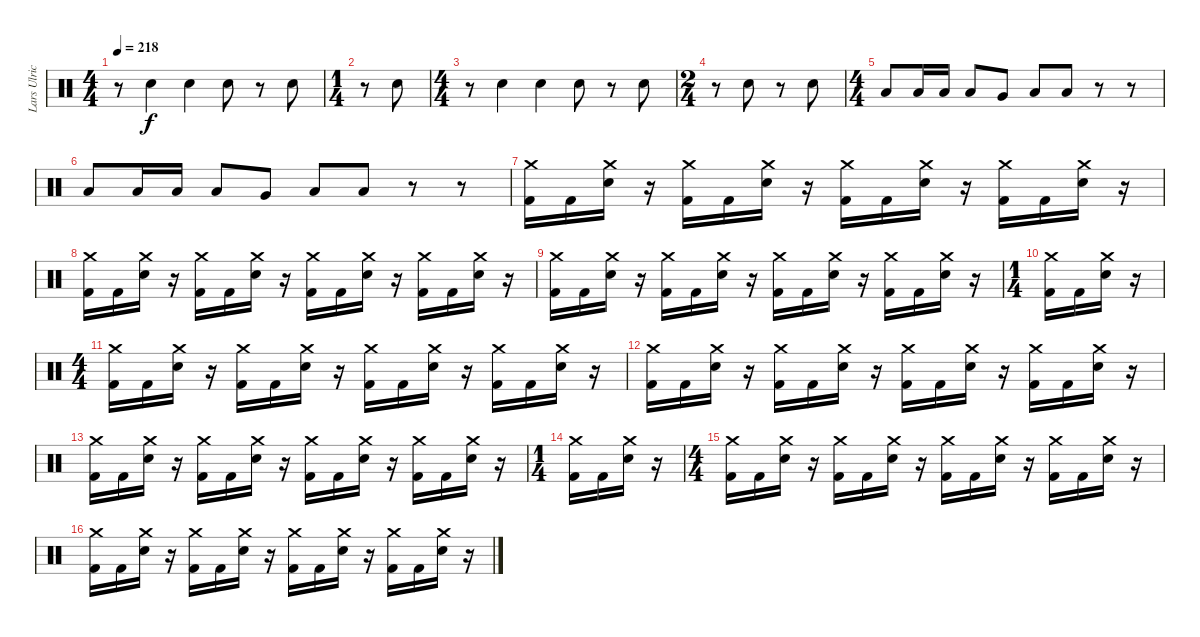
\track ("Lars Ulrich" "Lars Ulric") {instrument percussion}
\staff {score}
\articulation defaults
\ts (4 4)
\tempo 218
\clef neutral
\ks c
r.8{dy f} "Electric Snare (hit)".4 "Electric Snare (hit)".4 "Electric Snare (hit)".8 r.8 "Electric Snare (hit)".8 |
\ts (1 4)
r.8 "Electric Snare (hit)".8 |
\ts (4 4)
r.8 "Electric Snare (hit)".4 "Electric Snare (hit)".4 "Electric Snare (hit)".8 r.8 "Electric Snare (hit)".8 |
\ts (2 4)
r.8 "Electric Snare (hit)".8 r.8 "Electric Snare (hit)".8 |
\ts (4 4)
"Low Tom (hit)".8 "Low Tom (hit)".16 "Low Tom (hit)".16 "Low Tom (hit)".8 "Very Low Tom (hit)".8 "Low Tom (hit)".8 "Low Tom (hit)".8 r.8 r.8 |
"Low Tom (hit)".8 "Low Tom (hit)".16 "Low Tom (hit)".16 "Low Tom (hit)".8 "Very Low Tom (hit)".8 "Low Tom (hit)".8 "Low Tom (hit)".8 r.8 r.8 |
("Crash medium (hit)" "Kick (hit) 2").16 "Kick (hit) 2".16 ("Crash medium (hit)" "Electric Snare (hit)").16 r.16 ("Crash medium (hit)" "Kick (hit) 2").16 "Kick (hit) 2".16 ("Crash medium (hit)" "Electric Snare (hit)").16 r.16 ("Crash medium (hit)" "Kick (hit) 2").16 "Kick (hit) 2".16 ("Crash medium (hit)" "Electric Snare (hit)").16 r.16 ("Crash medium (hit)" "Kick (hit) 2").16 "Kick (hit) 2".16 ("Crash medium (hit)" "Electric Snare (hit)").16 r.16 |
("Crash medium (hit)" "Kick (hit) 2").16 "Kick (hit) 2".16 ("Crash medium (hit)" "Electric Snare (hit)").16 r.16 ("Crash medium (hit)" "Kick (hit) 2").16 "Kick (hit) 2".16 ("Crash medium (hit)" "Electric Snare (hit)").16 r.16 ("Crash medium (hit)" "Kick (hit) 2").16 "Kick (hit) 2".16 ("Crash medium (hit)" "Electric Snare (hit)").16 r.16 ("Crash medium (hit)" "Kick (hit) 2").16 "Kick (hit) 2".16 ("Crash medium (hit)" "Electric Snare (hit)").16 r.16 |
("Crash medium (hit)" "Kick (hit) 2").16 "Kick (hit) 2".16 ("Crash medium (hit)" "Electric Snare (hit)").16 r.16 ("Crash medium (hit)" "Kick (hit) 2").16 "Kick (hit) 2".16 ("Crash medium (hit)" "Electric Snare (hit)").16 r.16 ("Crash medium (hit)" "Kick (hit) 2").16 "Kick (hit) 2".16 ("Crash medium (hit)" "Electric Snare (hit)").16 r.16 ("Crash medium (hit)" "Kick (hit) 2").16 "Kick (hit) 2".16 ("Crash medium (hit)" "Electric Snare (hit)").16 r.16 |
\ts (1 4)
("Crash medium (hit)" "Kick (hit) 2").16 "Kick (hit) 2".16 ("Crash medium (hit)" "Electric Snare (hit)").16 r.16 |
\ts (4 4)
("Crash medium (hit)" "Kick (hit) 2").16 "Kick (hit) 2".16 ("Crash medium (hit)" "Electric Snare (hit)").16 r.16 ("Crash medium (hit)" "Kick (hit) 2").16 "Kick (hit) 2".16 ("Crash medium (hit)" "Electric Snare (hit)").16 r.16 ("Crash medium (hit)" "Kick (hit) 2").16 "Kick (hit) 2".16 ("Crash medium (hit)" "Electric Snare (hit)").16 r.16 ("Crash medium (hit)" "Kick (hit) 2").16 "Kick (hit) 2".16 ("Crash medium (hit)" "Electric Snare (hit)").16 r.16 |
("Crash medium (hit)" "Kick (hit) 2").16 "Kick (hit) 2".16 ("Crash medium (hit)" "Electric Snare (hit)").16 r.16 ("Crash medium (hit)" "Kick (hit) 2").16 "Kick (hit) 2".16 ("Crash medium (hit)" "Electric Snare (hit)").16 r.16 ("Crash medium (hit)" "Kick (hit) 2").16 "Kick (hit) 2".16 ("Crash medium (hit)" "Electric Snare (hit)").16 r.16 ("Crash medium (hit)" "Kick (hit) 2").16 "Kick (hit) 2".16 ("Crash medium (hit)" "Electric Snare (hit)").16 r.16 |
("Crash medium (hit)" "Kick (hit) 2").16 "Kick (hit) 2".16 ("Crash medium (hit)" "Electric Snare (hit)").16 r.16 ("Crash medium (hit)" "Kick (hit) 2").16 "Kick (hit) 2".16 ("Crash medium (hit)" "Electric Snare (hit)").16 r.16 ("Crash medium (hit)" "Kick (hit) 2").16 "Kick (hit) 2".16 ("Crash medium (hit)" "Electric Snare (hit)").16 r.16 ("Crash medium (hit)" "Kick (hit) 2").16 "Kick (hit) 2".16 ("Crash medium (hit)" "Electric Snare (hit)").16 r.16 |
\ts (1 4)
("Crash medium (hit)" "Kick (hit) 2").16 "Kick (hit) 2".16 ("Crash medium (hit)" "Electric Snare (hit)").16 r.16 |
\ts (4 4)
("Crash medium (hit)" "Kick (hit) 2").16 "Kick (hit) 2".16 ("Crash medium (hit)" "Electric Snare (hit)").16 r.16 ("Crash medium (hit)" "Kick (hit) 2").16 "Kick (hit) 2".16 ("Crash medium (hit)" "Electric Snare (hit)").16 r.16 ("Crash medium (hit)" "Kick (hit) 2").16 "Kick (hit) 2".16 ("Crash medium (hit)" "Electric Snare (hit)").16 r.16 ("Crash medium (hit)" "Kick (hit) 2").16 "Kick (hit) 2".16 ("Crash medium (hit)" "Electric Snare (hit)").16 r.16 |
("Crash medium (hit)" "Kick (hit) 2").16 "Kick (hit) 2".16 ("Crash medium (hit)" "Electric Snare (hit)").16 r.16 ("Crash medium (hit)" "Kick (hit) 2").16 "Kick (hit) 2".16 ("Crash medium (hit)" "Electric Snare (hit)").16 r.16 ("Crash medium (hit)" "Kick (hit) 2").16 "Kick (hit) 2".16 ("Crash medium (hit)" "Electric Snare (hit)").16 r.16 ("Crash medium (hit)" "Kick (hit) 2").16 "Kick (hit) 2".16 ("Crash medium (hit)" "Electric Snare (hit)").16 r.16
